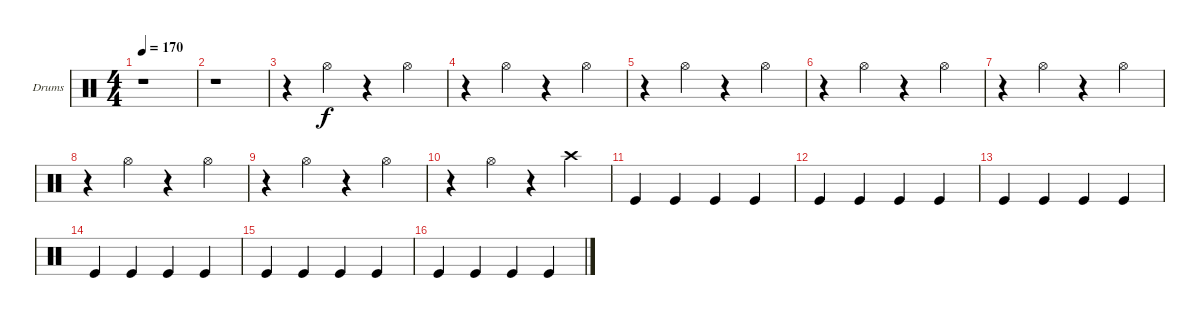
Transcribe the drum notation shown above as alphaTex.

\defaultSystemsLayout 4
\bracketExtendMode groupsimilarinstruments
\firstSystemTrackNameOrientation horizontal
\otherSystemsTrackNameOrientation horizontal
\track ("Барабаны" "Drums") {instrument percussion}
\staff {score}
\articulation defaults
\ts (4 4)
\tempo 170
\clef neutral
\ks c
r.1{dy f} |
r.1 |
r.4 "Hi-Hat (open)".4 r.4 "Hi-Hat (open)".4 |
r.4 "Hi-Hat (open)".4 r.4 "Hi-Hat (open)".4 |
r.4 "Hi-Hat (open)".4 r.4 "Hi-Hat (open)".4 |
r.4 "Hi-Hat (open)".4 r.4 "Hi-Hat (open)".4 |
r.4 "Hi-Hat (open)".4 r.4 "Hi-Hat (open)".4 |
r.4 "Hi-Hat (open)".4 r.4 "Hi-Hat (open)".4 |
r.4 "Hi-Hat (open)".4 r.4 "Hi-Hat (open)".4 |
r.4 "Hi-Hat (open)".4 r.4 "Crash high (hit)".4 |
"Kick (hit)".4 "Kick (hit)".4 "Kick (hit)".4 "Kick (hit)".4 |
"Kick (hit)".4 "Kick (hit)".4 "Kick (hit)".4 "Kick (hit)".4 |
"Kick (hit)".4 "Kick (hit)".4 "Kick (hit)".4 "Kick (hit)".4 |
"Kick (hit)".4 "Kick (hit)".4 "Kick (hit)".4 "Kick (hit)".4 |
"Kick (hit)".4 "Kick (hit)".4 "Kick (hit)".4 "Kick (hit)".4 |
"Kick (hit)".4 "Kick (hit)".4 "Kick (hit)".4 "Kick (hit)".4
